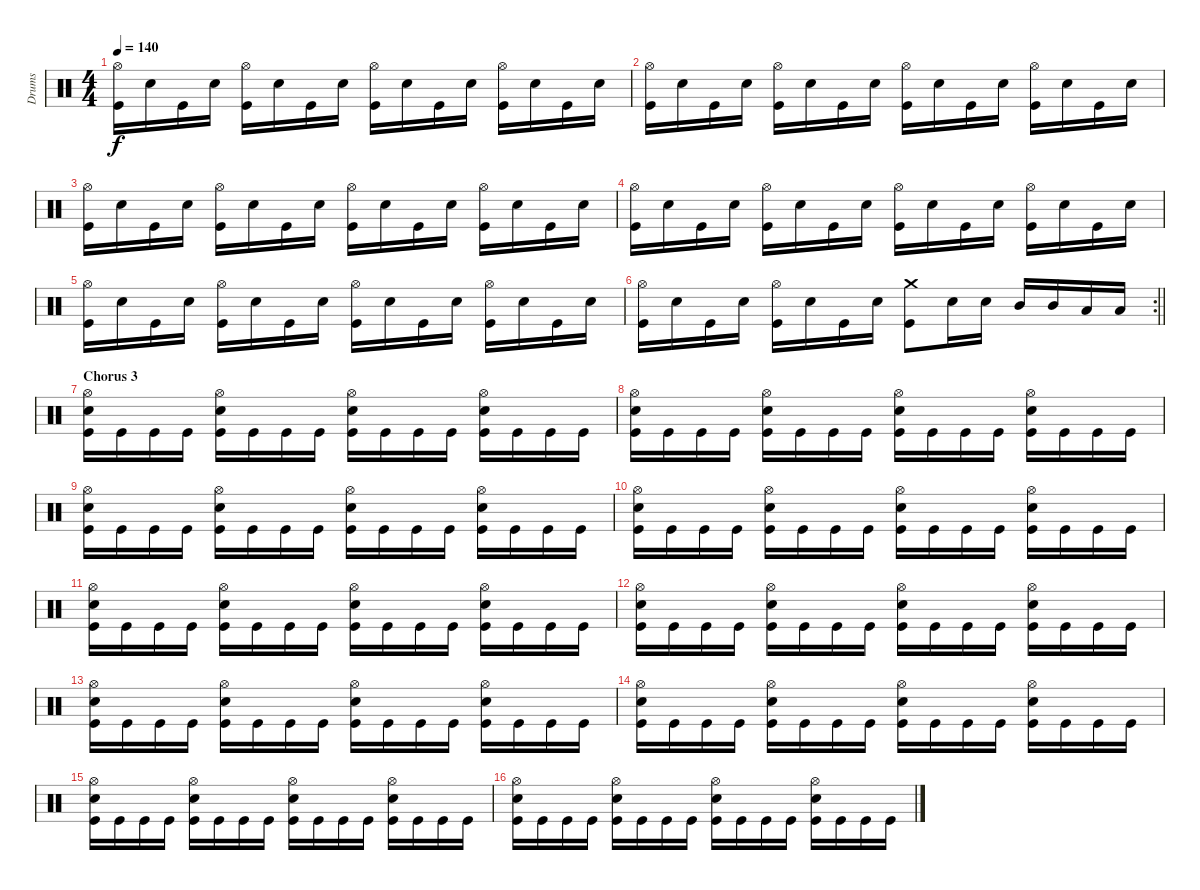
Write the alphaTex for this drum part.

\track ("Drums" "Drums") {instrument percussion}
\staff {score}
\articulation defaults
\ts (4 4)
\tempo 140
\clef neutral
\ks c
("Hi-Hat (open)" "Kick (hit)").16{dy f} "Snare (hit) 2".16 "Kick (hit)".16 "Snare (hit) 2".16 ("Hi-Hat (open)" "Kick (hit)").16 "Snare (hit) 2".16 "Kick (hit)".16 "Snare (hit) 2".16 ("Hi-Hat (open)" "Kick (hit)").16 "Snare (hit) 2".16 "Kick (hit)".16 "Snare (hit) 2".16 ("Hi-Hat (open)" "Kick (hit)").16 "Snare (hit) 2".16 "Kick (hit)".16 "Snare (hit) 2".16 |
("Hi-Hat (open)" "Kick (hit)").16 "Snare (hit) 2".16 "Kick (hit)".16 "Snare (hit) 2".16 ("Hi-Hat (open)" "Kick (hit)").16 "Snare (hit) 2".16 "Kick (hit)".16 "Snare (hit) 2".16 ("Hi-Hat (open)" "Kick (hit)").16 "Snare (hit) 2".16 "Kick (hit)".16 "Snare (hit) 2".16 ("Hi-Hat (open)" "Kick (hit)").16 "Snare (hit) 2".16 "Kick (hit)".16 "Snare (hit) 2".16 |
("Hi-Hat (open)" "Kick (hit)").16 "Snare (hit) 2".16 "Kick (hit)".16 "Snare (hit) 2".16 ("Hi-Hat (open)" "Kick (hit)").16 "Snare (hit) 2".16 "Kick (hit)".16 "Snare (hit) 2".16 ("Hi-Hat (open)" "Kick (hit)").16 "Snare (hit) 2".16 "Kick (hit)".16 "Snare (hit) 2".16 ("Hi-Hat (open)" "Kick (hit)").16 "Snare (hit) 2".16 "Kick (hit)".16 "Snare (hit) 2".16 |
("Hi-Hat (open)" "Kick (hit)").16 "Snare (hit) 2".16 "Kick (hit)".16 "Snare (hit) 2".16 ("Hi-Hat (open)" "Kick (hit)").16 "Snare (hit) 2".16 "Kick (hit)".16 "Snare (hit) 2".16 ("Hi-Hat (open)" "Kick (hit)").16 "Snare (hit) 2".16 "Kick (hit)".16 "Snare (hit) 2".16 ("Hi-Hat (open)" "Kick (hit)").16 "Snare (hit) 2".16 "Kick (hit)".16 "Snare (hit) 2".16 |
("Hi-Hat (open)" "Kick (hit)").16 "Snare (hit) 2".16 "Kick (hit)".16 "Snare (hit) 2".16 ("Hi-Hat (open)" "Kick (hit)").16 "Snare (hit) 2".16 "Kick (hit)".16 "Snare (hit) 2".16 ("Hi-Hat (open)" "Kick (hit)").16 "Snare (hit) 2".16 "Kick (hit)".16 "Snare (hit) 2".16 ("Hi-Hat (open)" "Kick (hit)").16 "Snare (hit) 2".16 "Kick (hit)".16 "Snare (hit) 2".16 |
\rc 2
\barLineRight lightlight
("Hi-Hat (open)" "Kick (hit)").16 "Snare (hit) 2".16 "Kick (hit)".16 "Snare (hit) 2".16 ("Hi-Hat (open)" "Kick (hit)").16 "Snare (hit) 2".16 "Kick (hit)".16 "Snare (hit) 2".16 ("Crash medium (hit)" "Kick (hit)").8 "Snare (hit) 2".16 "Snare (hit) 2".16 "Mid Tom (hit)".16 "Mid Tom (hit)".16 "Low Tom (hit)".16 "Low Tom (hit)".16 |
\section ("" "Chorus 3")
("Hi-Hat (open)" "Snare (hit) 2" "Kick (hit)").16 "Kick (hit)".16 "Kick (hit)".16 "Kick (hit)".16 ("Hi-Hat (open)" "Snare (hit) 2" "Kick (hit)").16 "Kick (hit)".16 "Kick (hit)".16 "Kick (hit)".16 ("Hi-Hat (open)" "Snare (hit) 2" "Kick (hit)").16 "Kick (hit)".16 "Kick (hit)".16 "Kick (hit)".16 ("Hi-Hat (open)" "Snare (hit) 2" "Kick (hit)").16 "Kick (hit)".16 "Kick (hit)".16 "Kick (hit)".16 |
("Hi-Hat (open)" "Snare (hit) 2" "Kick (hit)").16 "Kick (hit)".16 "Kick (hit)".16 "Kick (hit)".16 ("Hi-Hat (open)" "Snare (hit) 2" "Kick (hit)").16 "Kick (hit)".16 "Kick (hit)".16 "Kick (hit)".16 ("Hi-Hat (open)" "Snare (hit) 2" "Kick (hit)").16 "Kick (hit)".16 "Kick (hit)".16 "Kick (hit)".16 ("Hi-Hat (open)" "Snare (hit) 2" "Kick (hit)").16 "Kick (hit)".16 "Kick (hit)".16 "Kick (hit)".16 |
("Hi-Hat (open)" "Snare (hit) 2" "Kick (hit)").16 "Kick (hit)".16 "Kick (hit)".16 "Kick (hit)".16 ("Hi-Hat (open)" "Snare (hit) 2" "Kick (hit)").16 "Kick (hit)".16 "Kick (hit)".16 "Kick (hit)".16 ("Hi-Hat (open)" "Snare (hit) 2" "Kick (hit)").16 "Kick (hit)".16 "Kick (hit)".16 "Kick (hit)".16 ("Hi-Hat (open)" "Snare (hit) 2" "Kick (hit)").16 "Kick (hit)".16 "Kick (hit)".16 "Kick (hit)".16 |
("Hi-Hat (open)" "Snare (hit) 2" "Kick (hit)").16 "Kick (hit)".16 "Kick (hit)".16 "Kick (hit)".16 ("Hi-Hat (open)" "Snare (hit) 2" "Kick (hit)").16 "Kick (hit)".16 "Kick (hit)".16 "Kick (hit)".16 ("Hi-Hat (open)" "Snare (hit) 2" "Kick (hit)").16 "Kick (hit)".16 "Kick (hit)".16 "Kick (hit)".16 ("Hi-Hat (open)" "Snare (hit) 2" "Kick (hit)").16 "Kick (hit)".16 "Kick (hit)".16 "Kick (hit)".16 |
("Hi-Hat (open)" "Snare (hit) 2" "Kick (hit)").16 "Kick (hit)".16 "Kick (hit)".16 "Kick (hit)".16 ("Hi-Hat (open)" "Snare (hit) 2" "Kick (hit)").16 "Kick (hit)".16 "Kick (hit)".16 "Kick (hit)".16 ("Hi-Hat (open)" "Snare (hit) 2" "Kick (hit)").16 "Kick (hit)".16 "Kick (hit)".16 "Kick (hit)".16 ("Hi-Hat (open)" "Snare (hit) 2" "Kick (hit)").16 "Kick (hit)".16 "Kick (hit)".16 "Kick (hit)".16 |
("Hi-Hat (open)" "Snare (hit) 2" "Kick (hit)").16 "Kick (hit)".16 "Kick (hit)".16 "Kick (hit)".16 ("Hi-Hat (open)" "Snare (hit) 2" "Kick (hit)").16 "Kick (hit)".16 "Kick (hit)".16 "Kick (hit)".16 ("Hi-Hat (open)" "Snare (hit) 2" "Kick (hit)").16 "Kick (hit)".16 "Kick (hit)".16 "Kick (hit)".16 ("Hi-Hat (open)" "Snare (hit) 2" "Kick (hit)").16 "Kick (hit)".16 "Kick (hit)".16 "Kick (hit)".16 |
("Hi-Hat (open)" "Snare (hit) 2" "Kick (hit)").16 "Kick (hit)".16 "Kick (hit)".16 "Kick (hit)".16 ("Hi-Hat (open)" "Snare (hit) 2" "Kick (hit)").16 "Kick (hit)".16 "Kick (hit)".16 "Kick (hit)".16 ("Hi-Hat (open)" "Snare (hit) 2" "Kick (hit)").16 "Kick (hit)".16 "Kick (hit)".16 "Kick (hit)".16 ("Hi-Hat (open)" "Snare (hit) 2" "Kick (hit)").16 "Kick (hit)".16 "Kick (hit)".16 "Kick (hit)".16 |
("Hi-Hat (open)" "Snare (hit) 2" "Kick (hit)").16 "Kick (hit)".16 "Kick (hit)".16 "Kick (hit)".16 ("Hi-Hat (open)" "Snare (hit) 2" "Kick (hit)").16 "Kick (hit)".16 "Kick (hit)".16 "Kick (hit)".16 ("Hi-Hat (open)" "Snare (hit) 2" "Kick (hit)").16 "Kick (hit)".16 "Kick (hit)".16 "Kick (hit)".16 ("Hi-Hat (open)" "Snare (hit) 2" "Kick (hit)").16 "Kick (hit)".16 "Kick (hit)".16 "Kick (hit)".16 |
("Hi-Hat (open)" "Snare (hit) 2" "Kick (hit)").16 "Kick (hit)".16 "Kick (hit)".16 "Kick (hit)".16 ("Hi-Hat (open)" "Snare (hit) 2" "Kick (hit)").16 "Kick (hit)".16 "Kick (hit)".16 "Kick (hit)".16 ("Hi-Hat (open)" "Snare (hit) 2" "Kick (hit)").16 "Kick (hit)".16 "Kick (hit)".16 "Kick (hit)".16 ("Hi-Hat (open)" "Snare (hit) 2" "Kick (hit)").16 "Kick (hit)".16 "Kick (hit)".16 "Kick (hit)".16 |
("Hi-Hat (open)" "Snare (hit) 2" "Kick (hit)").16 "Kick (hit)".16 "Kick (hit)".16 "Kick (hit)".16 ("Hi-Hat (open)" "Snare (hit) 2" "Kick (hit)").16 "Kick (hit)".16 "Kick (hit)".16 "Kick (hit)".16 ("Hi-Hat (open)" "Snare (hit) 2" "Kick (hit)").16 "Kick (hit)".16 "Kick (hit)".16 "Kick (hit)".16 ("Hi-Hat (open)" "Snare (hit) 2" "Kick (hit)").16 "Kick (hit)".16 "Kick (hit)".16 "Kick (hit)".16
